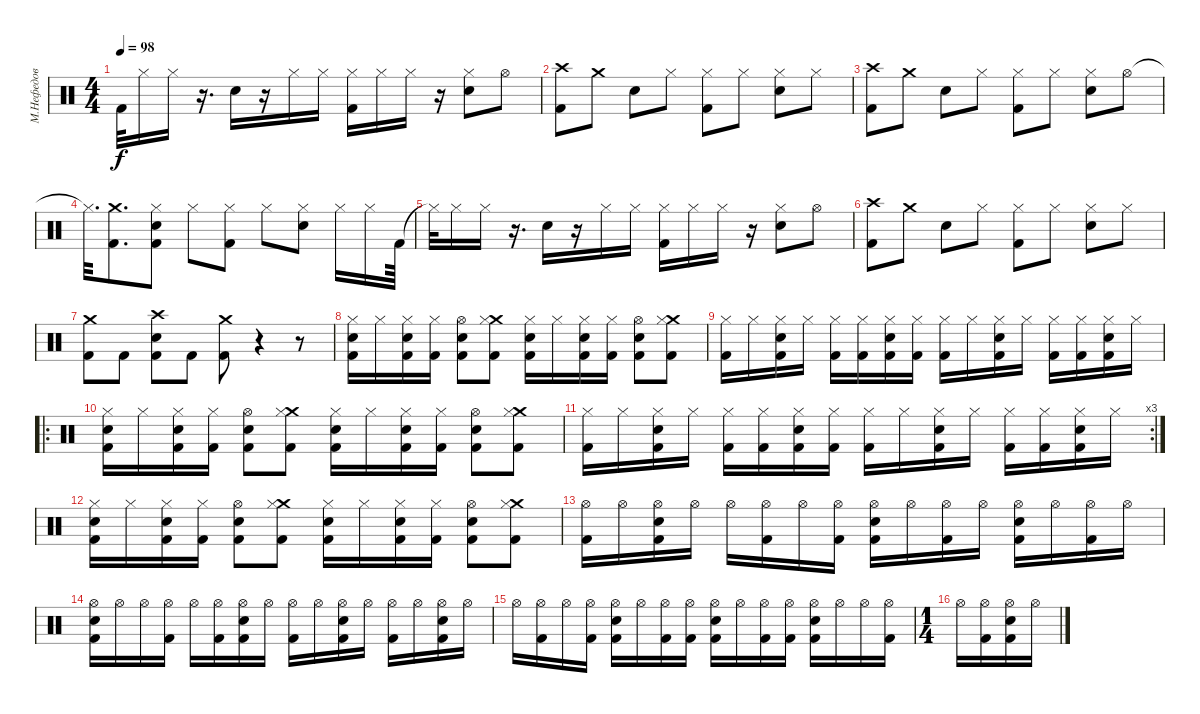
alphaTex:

\track ("М.Нефедов" "М.Нефедов") {instrument percussion}
\staff {score}
\articulation defaults
\ts (4 4)
\tempo 98
\clef neutral
\ks c "Kick (hit) 2"{t}.32{dy f} "Hi-Hat (closed)".16 "Hi-Hat (closed)".16
r.16{d} "Snare (hit) 2".16 r.16 "Hi-Hat (closed)".16 "Hi-Hat (closed)".16 ("Hi-Hat (closed)" "Kick (hit) 2").16 "Hi-Hat (closed)".16 "Hi-Hat (closed)".16 r.16 ("Hi-Hat (closed)" "Snare (hit) 2").8 "Hi-Hat (open)".8 |
("Crash high (hit)" "Kick (hit) 2").8 "Crash medium (hit)".8 "Snare (hit) 2".8 "Hi-Hat (closed)".8 ("Hi-Hat (closed)" "Kick (hit) 2").8 "Hi-Hat (closed)".8 ("Hi-Hat (closed)" "Snare (hit) 2").8 "Hi-Hat (closed)".8 |
("Crash high (hit)" "Kick (hit) 2").8 "Crash medium (hit)".8 "Snare (hit) 2".8 "Hi-Hat (closed)".8 ("Hi-Hat (closed)" "Kick (hit) 2").8 "Hi-Hat (closed)".8 ("Hi-Hat (closed)" "Snare (hit) 2").8 "Hi-Hat (open)".8 |
"Hi-Hat (closed)"{t}.32{d} ("Crash medium (hit)" "Kick (hit) 2").8{d} ("Hi-Hat (closed)" "Snare (hit) 2" "Kick (hit) 2").8 "Hi-Hat (closed)".8 ("Hi-Hat (closed)" "Kick (hit) 2").8 "Hi-Hat (closed)".8 ("Hi-Hat (closed)" "Snare (hit) 2").8 "Hi-Hat (closed)".16 "Hi-Hat (closed)".16 "Kick (hit) 2".64 |
"Hi-Hat (closed)"{t}.32 "Hi-Hat (closed)".16 "Hi-Hat (closed)".16 r.16{d} "Snare (hit) 2".16 r.16 "Hi-Hat (closed)".16 "Hi-Hat (closed)".16 ("Hi-Hat (closed)" "Kick (hit) 2").16 "Hi-Hat (closed)".16 "Hi-Hat (closed)".16 r.16 ("Hi-Hat (closed)" "Snare (hit) 2").8 "Hi-Hat (open)".8 |
("Crash high (hit)" "Kick (hit) 2").8 "Crash medium (hit)".8 "Snare (hit) 2".8 "Hi-Hat (closed)".8 ("Hi-Hat (closed)" "Kick (hit) 2").8 "Hi-Hat (closed)".8 ("Hi-Hat (closed)" "Snare (hit) 2").8 "Hi-Hat (closed)".8 |
("Crash medium (hit)" "Kick (hit) 2").8 "Kick (hit) 2".8 ("Crash high (hit)" "Snare (hit) 2" "Kick (hit) 2").8 "Kick (hit) 2".8 ("Crash medium (hit)" "Kick (hit) 2").8 r.4 r.8 |
("Hi-Hat (closed)" "Snare (hit) 2" "Kick (hit) 2").16 "Hi-Hat (closed)".16 ("Hi-Hat (closed)" "Snare (hit) 2" "Kick (hit) 2").16 ("Hi-Hat (closed)" "Kick (hit) 2").16 ("Hi-Hat (open)" "Snare (hit) 2" "Kick (hit) 2").8 ("Crash medium (hit)" "Hi-Hat (closed)" "Kick (hit) 2").8 ("Hi-Hat (closed)" "Snare (hit) 2" "Kick (hit) 2").16 "Hi-Hat (closed)".16 ("Hi-Hat (closed)" "Snare (hit) 2" "Kick (hit) 2").16 ("Hi-Hat (closed)" "Kick (hit) 2").16 ("Hi-Hat (open)" "Snare (hit) 2" "Kick (hit) 2").8 ("Crash medium (hit)" "Hi-Hat (closed)" "Kick (hit) 2").8 |
("Hi-Hat (closed)" "Kick (hit) 2").16 "Hi-Hat (closed)".16 ("Hi-Hat (closed)" "Snare (hit) 2" "Kick (hit) 2").16 "Hi-Hat (closed)".16 ("Hi-Hat (closed)" "Kick (hit) 2").16 ("Hi-Hat (closed)" "Kick (hit) 2").16 ("Hi-Hat (closed)" "Snare (hit) 2" "Kick (hit) 2").16 ("Hi-Hat (closed)" "Kick (hit) 2").16 ("Hi-Hat (closed)" "Kick (hit) 2").16 "Hi-Hat (closed)".16 ("Hi-Hat (closed)" "Snare (hit) 2" "Kick (hit) 2").16 "Hi-Hat (closed)".16 ("Hi-Hat (closed)" "Kick (hit) 2").16 ("Hi-Hat (closed)" "Kick (hit) 2").16 ("Hi-Hat (closed)" "Snare (hit) 2" "Kick (hit) 2").16 "Hi-Hat (closed)".16 |
\ro
("Hi-Hat (closed)" "Snare (hit) 2" "Kick (hit) 2").16 "Hi-Hat (closed)".16 ("Hi-Hat (closed)" "Snare (hit) 2" "Kick (hit) 2").16 ("Hi-Hat (closed)" "Kick (hit) 2").16 ("Hi-Hat (open)" "Snare (hit) 2" "Kick (hit) 2").8 ("Crash medium (hit)" "Hi-Hat (closed)" "Kick (hit) 2").8 ("Hi-Hat (closed)" "Snare (hit) 2" "Kick (hit) 2").16 "Hi-Hat (closed)".16 ("Hi-Hat (closed)" "Snare (hit) 2" "Kick (hit) 2").16 ("Hi-Hat (closed)" "Kick (hit) 2").16 ("Hi-Hat (open)" "Snare (hit) 2" "Kick (hit) 2").8 ("Crash medium (hit)" "Hi-Hat (closed)" "Kick (hit) 2").8 |
\rc 3
("Hi-Hat (closed)" "Kick (hit) 2").16 "Hi-Hat (closed)".16 ("Hi-Hat (closed)" "Snare (hit) 2" "Kick (hit) 2").16 "Hi-Hat (closed)".16 ("Hi-Hat (closed)" "Kick (hit) 2").16 ("Hi-Hat (closed)" "Kick (hit) 2").16 ("Hi-Hat (closed)" "Snare (hit) 2" "Kick (hit) 2").16 ("Hi-Hat (closed)" "Kick (hit) 2").16 ("Hi-Hat (closed)" "Kick (hit) 2").16 "Hi-Hat (closed)".16 ("Hi-Hat (closed)" "Snare (hit) 2" "Kick (hit) 2").16 "Hi-Hat (closed)".16 ("Hi-Hat (closed)" "Kick (hit) 2").16 ("Hi-Hat (closed)" "Kick (hit) 2").16 ("Hi-Hat (closed)" "Snare (hit) 2" "Kick (hit) 2").16 "Hi-Hat (closed)".16 |
("Hi-Hat (closed)" "Snare (hit) 2" "Kick (hit) 2").16 "Hi-Hat (closed)".16 ("Hi-Hat (closed)" "Snare (hit) 2" "Kick (hit) 2").16 ("Hi-Hat (closed)" "Kick (hit) 2").16 ("Hi-Hat (open)" "Snare (hit) 2" "Kick (hit) 2").8 ("Crash medium (hit)" "Hi-Hat (closed)" "Kick (hit) 2").8 ("Hi-Hat (closed)" "Snare (hit) 2" "Kick (hit) 2").16 "Hi-Hat (closed)".16 ("Hi-Hat (closed)" "Snare (hit) 2" "Kick (hit) 2").16 ("Hi-Hat (closed)" "Kick (hit) 2").16 ("Hi-Hat (open)" "Snare (hit) 2" "Kick (hit) 2").8 ("Crash medium (hit)" "Hi-Hat (closed)" "Kick (hit) 2").8 |
("Hi-Hat (open)" "Kick (hit) 2").16 "Hi-Hat (open)".16 ("Hi-Hat (open)" "Snare (hit) 2" "Kick (hit) 2").16 "Hi-Hat (open)".16 "Hi-Hat (open)".16 ("Hi-Hat (open)" "Kick (hit) 2").16 "Hi-Hat (open)".16 ("Hi-Hat (open)" "Kick (hit) 2").16 ("Hi-Hat (open)" "Snare (hit) 2" "Kick (hit) 2").16 "Hi-Hat (open)".16 ("Hi-Hat (open)" "Kick (hit) 2").16 "Hi-Hat (open)".16 ("Hi-Hat (open)" "Snare (hit) 2" "Kick (hit) 2").16 "Hi-Hat (open)".16 ("Hi-Hat (open)" "Kick (hit) 2").16 "Hi-Hat (open)".16 |
("Hi-Hat (open)" "Snare (hit) 2" "Kick (hit) 2").16 "Hi-Hat (open)".16 "Hi-Hat (open)".16 ("Hi-Hat (open)" "Kick (hit) 2").16 "Hi-Hat (open)".16 ("Hi-Hat (open)" "Kick (hit) 2").16 ("Hi-Hat (open)" "Snare (hit) 2" "Kick (hit) 2").16 "Hi-Hat (open)".16 ("Hi-Hat (open)" "Kick (hit) 2").16 "Hi-Hat (open)".16 ("Hi-Hat (open)" "Snare (hit) 2" "Kick (hit) 2").16 "Hi-Hat (open)".16 ("Hi-Hat (open)" "Kick (hit) 2").16 "Hi-Hat (open)".16 ("Hi-Hat (open)" "Snare (hit) 2" "Kick (hit) 2").16 "Hi-Hat (open)".16 |
"Hi-Hat (open)".16 ("Hi-Hat (open)" "Kick (hit) 2").16 "Hi-Hat (open)".16 ("Hi-Hat (open)" "Kick (hit) 2").16 ("Hi-Hat (open)" "Snare (hit) 2" "Kick (hit) 2").16 "Hi-Hat (open)".16 ("Hi-Hat (open)" "Kick (hit) 2").16 ("Hi-Hat (open)" "Kick (hit) 2").16 ("Hi-Hat (open)" "Snare (hit) 2" "Kick (hit) 2").16 "Hi-Hat (open)".16 ("Hi-Hat (open)" "Kick (hit) 2").16 ("Hi-Hat (open)" "Kick (hit) 2").16 ("Hi-Hat (open)" "Snare (hit) 2" "Kick (hit) 2").16 "Hi-Hat (open)".16 "Hi-Hat (open)".16 ("Hi-Hat (open)" "Kick (hit) 2").16 |
\ts (1 4)
"Hi-Hat (open)".16 ("Hi-Hat (open)" "Kick (hit) 2").16 ("Hi-Hat (open)" "Snare (hit) 2" "Kick (hit) 2").16 "Hi-Hat (open)".16
